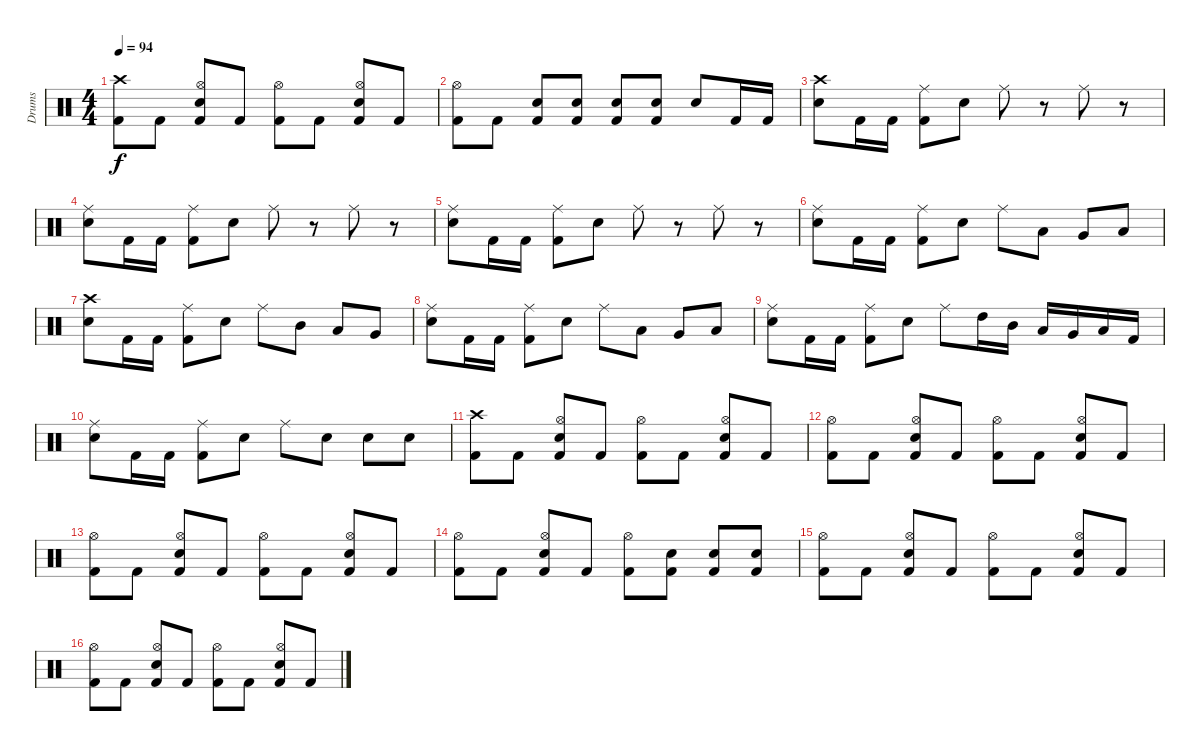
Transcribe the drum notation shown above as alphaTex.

\track ("Drums" "Drums") {instrument percussion}
\staff {score}
\articulation defaults
\ts (4 4)
\tempo 94
\clef neutral
\ks c
("Crash high (hit)" "Kick (hit) 2").8{dy f} "Kick (hit) 2".8 ("Hi-Hat (open)" "Snare (hit) 2" "Kick (hit) 2").8 "Kick (hit) 2".8 ("Hi-Hat (open)" "Kick (hit) 2").8 "Kick (hit) 2".8 ("Hi-Hat (open)" "Snare (hit) 2" "Kick (hit) 2").8 "Kick (hit) 2".8 |
("Hi-Hat (open)" "Kick (hit) 2").8 "Kick (hit) 2".8 ("Snare (hit) 2" "Kick (hit) 2").8 ("Snare (hit) 2" "Kick (hit) 2").8 ("Snare (hit) 2" "Kick (hit) 2").8 ("Snare (hit) 2" "Kick (hit) 2").8 "Snare (hit) 2".8 "Kick (hit) 2".16 "Kick (hit) 2".16 |
("Crash high (hit)" "Snare (hit) 2").8 "Kick (hit) 2".16 "Kick (hit) 2".16 ("Ride (middle)" "Kick (hit) 2").8 "Snare (hit) 2".8 "Ride (middle)".8 r.8 "Ride (middle)".8 r.8 |
("Ride (middle)" "Snare (hit) 2").8 "Kick (hit) 2".16 "Kick (hit) 2".16 ("Ride (middle)" "Kick (hit) 2").8 "Snare (hit) 2".8 "Ride (middle)".8 r.8 "Ride (middle)".8 r.8 |
("Ride (middle)" "Snare (hit) 2").8 "Kick (hit) 2".16 "Kick (hit) 2".16 ("Ride (middle)" "Kick (hit) 2").8 "Snare (hit) 2".8 "Ride (middle)".8 r.8 "Ride (middle)".8 r.8 |
("Ride (middle)" "Snare (hit) 2").8 "Kick (hit) 2".16 "Kick (hit) 2".16 ("Ride (middle)" "Kick (hit) 2").8 "Snare (hit) 2".8 "Ride (middle)".8 "Low Tom (hit)".8 "Very Low Tom (hit)".8 "Low Floor Tom (hit)".8 |
("Crash high (hit)" "Snare (hit) 2").8 "Kick (hit) 2".16 "Kick (hit) 2".16 ("Ride (middle)" "Kick (hit) 2").8 "Snare (hit) 2".8 "Ride (middle)".8 "Mid Tom (hit)".8 "Low Tom (hit)".8 "Very Low Tom (hit)".8 |
("Ride (middle)" "Snare (hit) 2").8 "Kick (hit) 2".16 "Kick (hit) 2".16 ("Ride (middle)" "Kick (hit) 2").8 "Snare (hit) 2".8 "Ride (middle)".8 "Low Tom (hit)".8 "Very Low Tom (hit)".8 "Low Floor Tom (hit)".8 |
("Ride (middle)" "Snare (hit) 2").8 "Kick (hit) 2".16 "Kick (hit) 2".16 ("Ride (middle)" "Kick (hit) 2").8 "Snare (hit) 2".8 "Ride (middle)".8 "High Tom (hit)".16 "Mid Tom (hit)".16 "Low Tom (hit)".16 "Very Low Tom (hit)".16 "Low Floor Tom (hit)".16 "Kick (hit) 2".16 |
("Ride (middle)" "Snare (hit) 2").8 "Kick (hit) 2".16 "Kick (hit) 2".16 ("Ride (middle)" "Kick (hit) 2").8 "Snare (hit) 2".8 "Ride (middle)".8 "Snare (hit) 2".8 "Snare (hit) 2".8 "Snare (hit) 2".8 |
("Crash high (hit)" "Kick (hit) 2").8 "Kick (hit) 2".8 ("Hi-Hat (open)" "Snare (hit) 2" "Kick (hit) 2").8 "Kick (hit) 2".8 ("Hi-Hat (open)" "Kick (hit) 2").8 "Kick (hit) 2".8 ("Hi-Hat (open)" "Snare (hit) 2" "Kick (hit) 2").8 "Kick (hit) 2".8 |
("Hi-Hat (open)" "Kick (hit) 2").8 "Kick (hit) 2".8 ("Hi-Hat (open)" "Snare (hit) 2" "Kick (hit) 2").8 "Kick (hit) 2".8 ("Hi-Hat (open)" "Kick (hit) 2").8 "Kick (hit) 2".8 ("Hi-Hat (open)" "Snare (hit) 2" "Kick (hit) 2").8 "Kick (hit) 2".8 |
("Hi-Hat (open)" "Kick (hit) 2").8 "Kick (hit) 2".8 ("Hi-Hat (open)" "Snare (hit) 2" "Kick (hit) 2").8 "Kick (hit) 2".8 ("Hi-Hat (open)" "Kick (hit) 2").8 "Kick (hit) 2".8 ("Hi-Hat (open)" "Snare (hit) 2" "Kick (hit) 2").8 "Kick (hit) 2".8 |
("Hi-Hat (open)" "Kick (hit) 2").8 "Kick (hit) 2".8 ("Hi-Hat (open)" "Snare (hit) 2" "Kick (hit) 2").8 "Kick (hit) 2".8 ("Hi-Hat (open)" "Kick (hit) 2").8 ("Snare (hit) 2" "Kick (hit) 2").8 ("Snare (hit) 2" "Kick (hit) 2").8 ("Snare (hit) 2" "Kick (hit) 2").8 |
("Hi-Hat (open)" "Kick (hit) 2").8 "Kick (hit) 2".8 ("Hi-Hat (open)" "Snare (hit) 2" "Kick (hit) 2").8 "Kick (hit) 2".8 ("Hi-Hat (open)" "Kick (hit) 2").8 "Kick (hit) 2".8 ("Hi-Hat (open)" "Snare (hit) 2" "Kick (hit) 2").8 "Kick (hit) 2".8 |
("Hi-Hat (open)" "Kick (hit) 2").8 "Kick (hit) 2".8 ("Hi-Hat (open)" "Snare (hit) 2" "Kick (hit) 2").8 "Kick (hit) 2".8 ("Hi-Hat (open)" "Kick (hit) 2").8 "Kick (hit) 2".8 ("Hi-Hat (open)" "Snare (hit) 2" "Kick (hit) 2").8 "Kick (hit) 2".8
